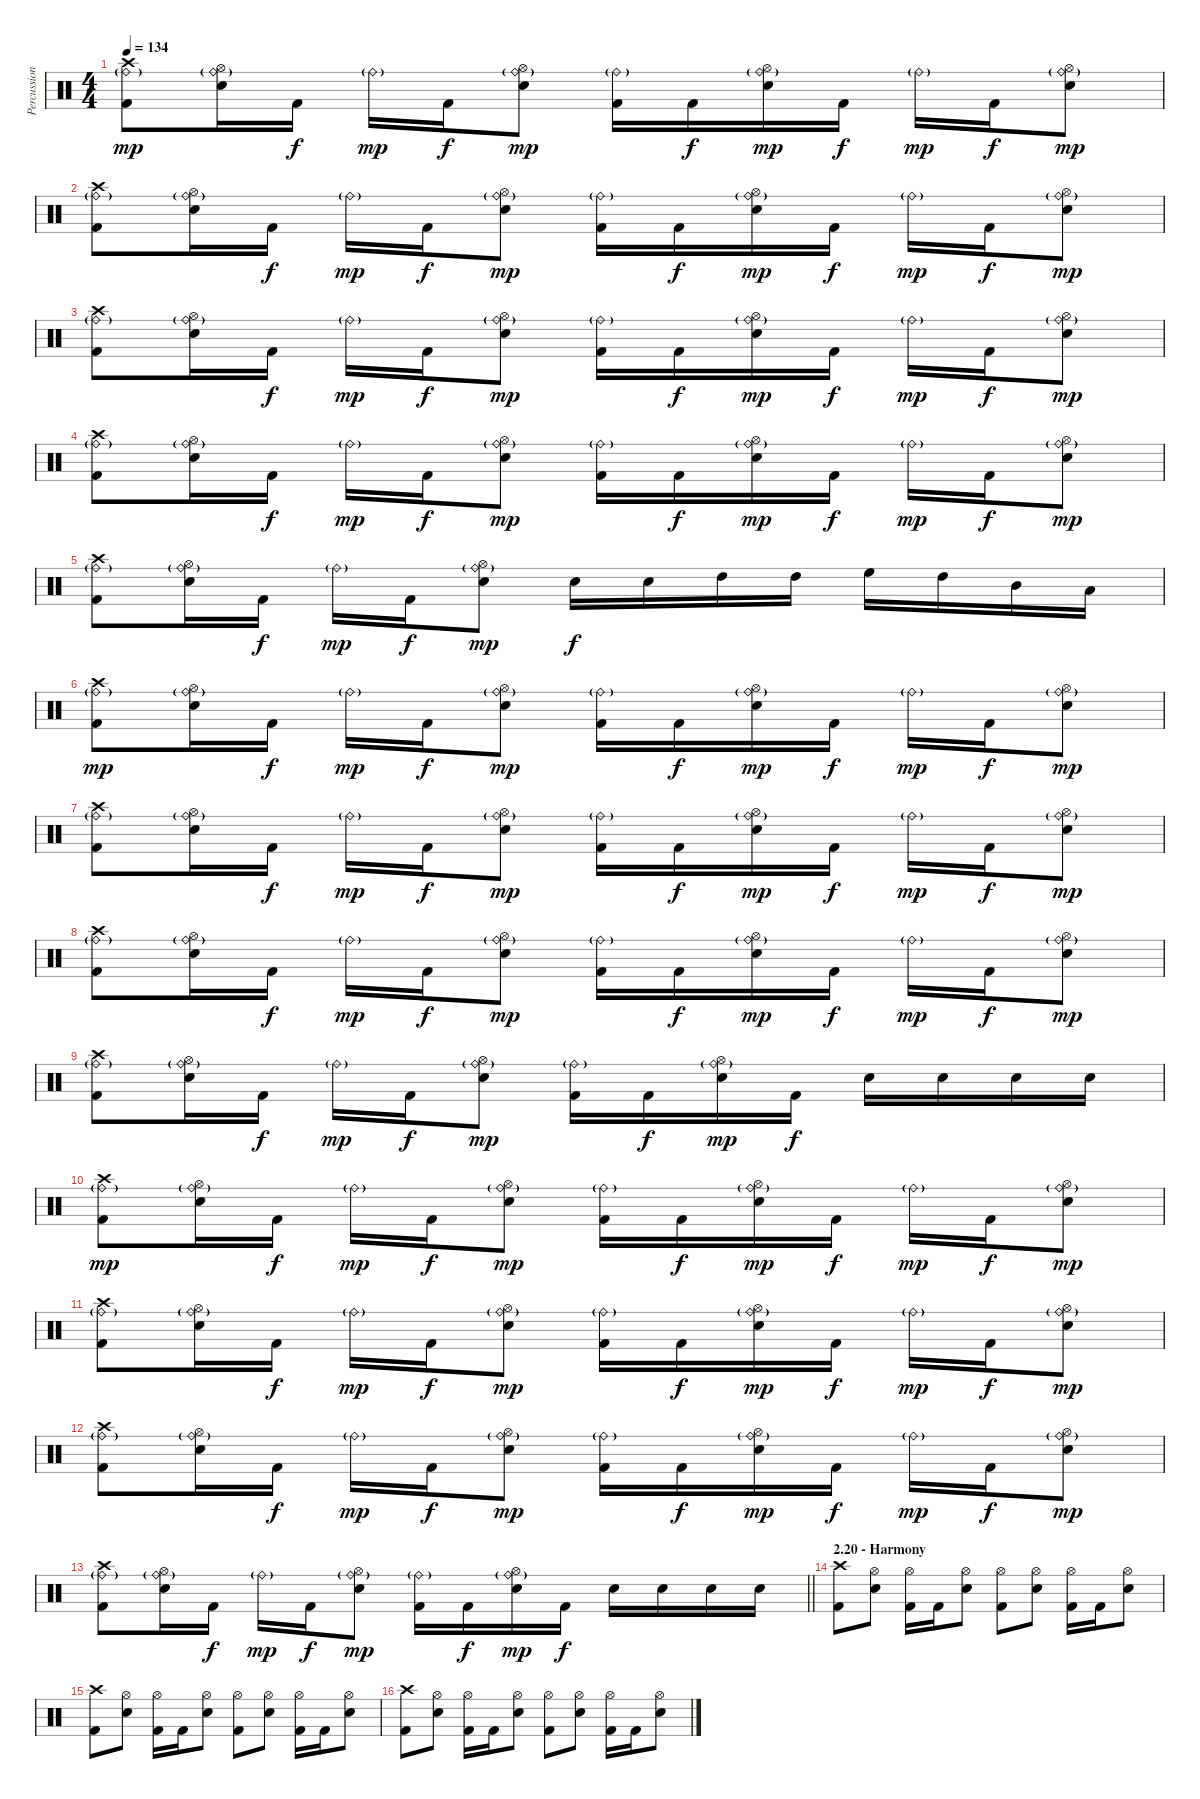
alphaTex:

\track ("Percussion" "Percussion") {instrument percussion}
\staff {score}
\articulation defaults
\ts (4 4)
\tempo 134
\clef neutral
\ks aminor
("Crash high (hit)" "Ride (bell)"{g} "Kick (hit) 2").8{dy mp} ("Hi-Hat (open)" "Ride (bell)"{g} "Electric Snare (hit)").16 "Kick (hit) 2".16{dy f} "Ride (bell)"{g}.16{dy mp} "Kick (hit) 2".16{dy f} ("Hi-Hat (open)" "Ride (bell)"{g} "Electric Snare (hit)").8{dy mp} ("Ride (bell)"{g} "Kick (hit) 2").16 "Kick (hit) 2".16{dy f} ("Hi-Hat (open)" "Ride (bell)"{g} "Electric Snare (hit)").16{dy mp} "Kick (hit) 2".16{dy f} "Ride (bell)"{g}.16{dy mp} "Kick (hit) 2".16{dy f} ("Hi-Hat (open)" "Ride (bell)"{g} "Electric Snare (hit)").8{dy mp} |
("Crash high (hit)" "Ride (bell)"{g} "Kick (hit) 2").8 ("Hi-Hat (open)" "Ride (bell)"{g} "Electric Snare (hit)").16 "Kick (hit) 2".16{dy f} "Ride (bell)"{g}.16{dy mp} "Kick (hit) 2".16{dy f} ("Hi-Hat (open)" "Ride (bell)"{g} "Electric Snare (hit)").8{dy mp} ("Ride (bell)"{g} "Kick (hit) 2").16 "Kick (hit) 2".16{dy f} ("Hi-Hat (open)" "Ride (bell)"{g} "Electric Snare (hit)").16{dy mp} "Kick (hit) 2".16{dy f} "Ride (bell)"{g}.16{dy mp} "Kick (hit) 2".16{dy f} ("Hi-Hat (open)" "Ride (bell)"{g} "Electric Snare (hit)").8{dy mp} |
("Crash high (hit)" "Ride (bell)"{g} "Kick (hit) 2").8 ("Hi-Hat (open)" "Ride (bell)"{g} "Electric Snare (hit)").16 "Kick (hit) 2".16{dy f} "Ride (bell)"{g}.16{dy mp} "Kick (hit) 2".16{dy f} ("Hi-Hat (open)" "Ride (bell)"{g} "Electric Snare (hit)").8{dy mp} ("Ride (bell)"{g} "Kick (hit) 2").16 "Kick (hit) 2".16{dy f} ("Hi-Hat (open)" "Ride (bell)"{g} "Electric Snare (hit)").16{dy mp} "Kick (hit) 2".16{dy f} "Ride (bell)"{g}.16{dy mp} "Kick (hit) 2".16{dy f} ("Hi-Hat (open)" "Ride (bell)"{g} "Electric Snare (hit)").8{dy mp} |
("Crash high (hit)" "Ride (bell)"{g} "Kick (hit) 2").8 ("Hi-Hat (open)" "Ride (bell)"{g} "Electric Snare (hit)").16 "Kick (hit) 2".16{dy f} "Ride (bell)"{g}.16{dy mp} "Kick (hit) 2".16{dy f} ("Hi-Hat (open)" "Ride (bell)"{g} "Electric Snare (hit)").8{dy mp} ("Ride (bell)"{g} "Kick (hit) 2").16 "Kick (hit) 2".16{dy f} ("Hi-Hat (open)" "Ride (bell)"{g} "Electric Snare (hit)").16{dy mp} "Kick (hit) 2".16{dy f} "Ride (bell)"{g}.16{dy mp} "Kick (hit) 2".16{dy f} ("Hi-Hat (open)" "Ride (bell)"{g} "Electric Snare (hit)").8{dy mp} |
("Crash high (hit)" "Ride (bell)"{g} "Kick (hit) 2").8 ("Hi-Hat (open)" "Ride (bell)"{g} "Electric Snare (hit)").16 "Kick (hit) 2".16{dy f} "Ride (bell)"{g}.16{dy mp} "Kick (hit) 2".16{dy f} ("Hi-Hat (open)" "Ride (bell)"{g} "Electric Snare (hit)").8{dy mp} "Electric Snare (hit)".16{dy f} "Electric Snare (hit)".16 "High Tom (hit)".16 "High Tom (hit)".16 "High Floor Tom (hit)".16 "High Tom (hit)".16 "Mid Tom (hit)".16 "Low Tom (hit)".16 |
("Crash high (hit)" "Ride (bell)"{g} "Kick (hit) 2").8{dy mp} ("Hi-Hat (open)" "Ride (bell)"{g} "Electric Snare (hit)").16 "Kick (hit) 2".16{dy f} "Ride (bell)"{g}.16{dy mp} "Kick (hit) 2".16{dy f} ("Hi-Hat (open)" "Ride (bell)"{g} "Electric Snare (hit)").8{dy mp} ("Ride (bell)"{g} "Kick (hit) 2").16 "Kick (hit) 2".16{dy f} ("Hi-Hat (open)" "Ride (bell)"{g} "Electric Snare (hit)").16{dy mp} "Kick (hit) 2".16{dy f} "Ride (bell)"{g}.16{dy mp} "Kick (hit) 2".16{dy f} ("Hi-Hat (open)" "Ride (bell)"{g} "Electric Snare (hit)").8{dy mp} |
("Crash high (hit)" "Ride (bell)"{g} "Kick (hit) 2").8 ("Hi-Hat (open)" "Ride (bell)"{g} "Electric Snare (hit)").16 "Kick (hit) 2".16{dy f} "Ride (bell)"{g}.16{dy mp} "Kick (hit) 2".16{dy f} ("Hi-Hat (open)" "Ride (bell)"{g} "Electric Snare (hit)").8{dy mp} ("Ride (bell)"{g} "Kick (hit) 2").16 "Kick (hit) 2".16{dy f} ("Hi-Hat (open)" "Ride (bell)"{g} "Electric Snare (hit)").16{dy mp} "Kick (hit) 2".16{dy f} "Ride (bell)"{g}.16{dy mp} "Kick (hit) 2".16{dy f} ("Hi-Hat (open)" "Ride (bell)"{g} "Electric Snare (hit)").8{dy mp} |
("Crash high (hit)" "Ride (bell)"{g} "Kick (hit) 2").8 ("Hi-Hat (open)" "Ride (bell)"{g} "Electric Snare (hit)").16 "Kick (hit) 2".16{dy f} "Ride (bell)"{g}.16{dy mp} "Kick (hit) 2".16{dy f} ("Hi-Hat (open)" "Ride (bell)"{g} "Electric Snare (hit)").8{dy mp} ("Ride (bell)"{g} "Kick (hit) 2").16 "Kick (hit) 2".16{dy f} ("Hi-Hat (open)" "Ride (bell)"{g} "Electric Snare (hit)").16{dy mp} "Kick (hit) 2".16{dy f} "Ride (bell)"{g}.16{dy mp} "Kick (hit) 2".16{dy f} ("Hi-Hat (open)" "Ride (bell)"{g} "Electric Snare (hit)").8{dy mp} |
("Crash high (hit)" "Ride (bell)"{g} "Kick (hit) 2").8 ("Hi-Hat (open)" "Ride (bell)"{g} "Electric Snare (hit)").16 "Kick (hit) 2".16{dy f} "Ride (bell)"{g}.16{dy mp} "Kick (hit) 2".16{dy f} ("Hi-Hat (open)" "Ride (bell)"{g} "Electric Snare (hit)").8{dy mp} ("Ride (bell)"{g} "Kick (hit) 2").16 "Kick (hit) 2".16{dy f} ("Hi-Hat (open)" "Ride (bell)"{g} "Electric Snare (hit)").16{dy mp} "Kick (hit) 2".16{dy f} "Electric Snare (hit)".16 "Electric Snare (hit)".16 "Electric Snare (hit)".16 "Electric Snare (hit)".16 |
("Crash high (hit)" "Ride (bell)"{g} "Kick (hit) 2").8{dy mp} ("Hi-Hat (open)" "Ride (bell)"{g} "Electric Snare (hit)").16 "Kick (hit) 2".16{dy f} "Ride (bell)"{g}.16{dy mp} "Kick (hit) 2".16{dy f} ("Hi-Hat (open)" "Ride (bell)"{g} "Electric Snare (hit)").8{dy mp} ("Ride (bell)"{g} "Kick (hit) 2").16 "Kick (hit) 2".16{dy f} ("Hi-Hat (open)" "Ride (bell)"{g} "Electric Snare (hit)").16{dy mp} "Kick (hit) 2".16{dy f} "Ride (bell)"{g}.16{dy mp} "Kick (hit) 2".16{dy f} ("Hi-Hat (open)" "Ride (bell)"{g} "Electric Snare (hit)").8{dy mp} |
("Crash high (hit)" "Ride (bell)"{g} "Kick (hit) 2").8 ("Hi-Hat (open)" "Ride (bell)"{g} "Electric Snare (hit)").16 "Kick (hit) 2".16{dy f} "Ride (bell)"{g}.16{dy mp} "Kick (hit) 2".16{dy f} ("Hi-Hat (open)" "Ride (bell)"{g} "Electric Snare (hit)").8{dy mp} ("Ride (bell)"{g} "Kick (hit) 2").16 "Kick (hit) 2".16{dy f} ("Hi-Hat (open)" "Ride (bell)"{g} "Electric Snare (hit)").16{dy mp} "Kick (hit) 2".16{dy f} "Ride (bell)"{g}.16{dy mp} "Kick (hit) 2".16{dy f} ("Hi-Hat (open)" "Ride (bell)"{g} "Electric Snare (hit)").8{dy mp} |
("Crash high (hit)" "Ride (bell)"{g} "Kick (hit) 2").8 ("Hi-Hat (open)" "Ride (bell)"{g} "Electric Snare (hit)").16 "Kick (hit) 2".16{dy f} "Ride (bell)"{g}.16{dy mp} "Kick (hit) 2".16{dy f} ("Hi-Hat (open)" "Ride (bell)"{g} "Electric Snare (hit)").8{dy mp} ("Ride (bell)"{g} "Kick (hit) 2").16 "Kick (hit) 2".16{dy f} ("Hi-Hat (open)" "Ride (bell)"{g} "Electric Snare (hit)").16{dy mp} "Kick (hit) 2".16{dy f} "Ride (bell)"{g}.16{dy mp} "Kick (hit) 2".16{dy f} ("Hi-Hat (open)" "Ride (bell)"{g} "Electric Snare (hit)").8{dy mp} |
\barLineRight lightlight
("Crash high (hit)" "Ride (bell)"{g} "Kick (hit) 2").8 ("Hi-Hat (open)" "Ride (bell)"{g} "Electric Snare (hit)").16 "Kick (hit) 2".16{dy f} "Ride (bell)"{g}.16{dy mp} "Kick (hit) 2".16{dy f} ("Hi-Hat (open)" "Ride (bell)"{g} "Electric Snare (hit)").8{dy mp} ("Ride (bell)"{g} "Kick (hit) 2").16 "Kick (hit) 2".16{dy f} ("Hi-Hat (open)" "Ride (bell)"{g} "Electric Snare (hit)").16{dy mp} "Kick (hit) 2".16{dy f} "Electric Snare (hit)".16 "Electric Snare (hit)".16 "Electric Snare (hit)".16 "Electric Snare (hit)".16 |
\section ("" "2.20 - Harmony")
("Crash high (hit)" "Kick (hit) 2").8 ("Hi-Hat (open)" "Electric Snare (hit)").8 ("Hi-Hat (open)" "Kick (hit) 2").16 "Kick (hit) 2".16 ("Hi-Hat (open)" "Electric Snare (hit)").8 ("Hi-Hat (open)" "Kick (hit) 2").8 ("Hi-Hat (open)" "Electric Snare (hit)").8 ("Hi-Hat (open)" "Kick (hit) 2").16 "Kick (hit) 2".16 ("Hi-Hat (open)" "Electric Snare (hit)").8 |
("Crash high (hit)" "Kick (hit) 2").8 ("Hi-Hat (open)" "Electric Snare (hit)").8 ("Hi-Hat (open)" "Kick (hit) 2").16 "Kick (hit) 2".16 ("Hi-Hat (open)" "Electric Snare (hit)").8 ("Hi-Hat (open)" "Kick (hit) 2").8 ("Hi-Hat (open)" "Electric Snare (hit)").8 ("Hi-Hat (open)" "Kick (hit) 2").16 "Kick (hit) 2".16 ("Hi-Hat (open)" "Electric Snare (hit)").8 |
("Crash high (hit)" "Kick (hit) 2").8 ("Hi-Hat (open)" "Electric Snare (hit)").8 ("Hi-Hat (open)" "Kick (hit) 2").16 "Kick (hit) 2".16 ("Hi-Hat (open)" "Electric Snare (hit)").8 ("Hi-Hat (open)" "Kick (hit) 2").8 ("Hi-Hat (open)" "Electric Snare (hit)").8 ("Hi-Hat (open)" "Kick (hit) 2").16 "Kick (hit) 2".16 ("Hi-Hat (open)" "Electric Snare (hit)").8
